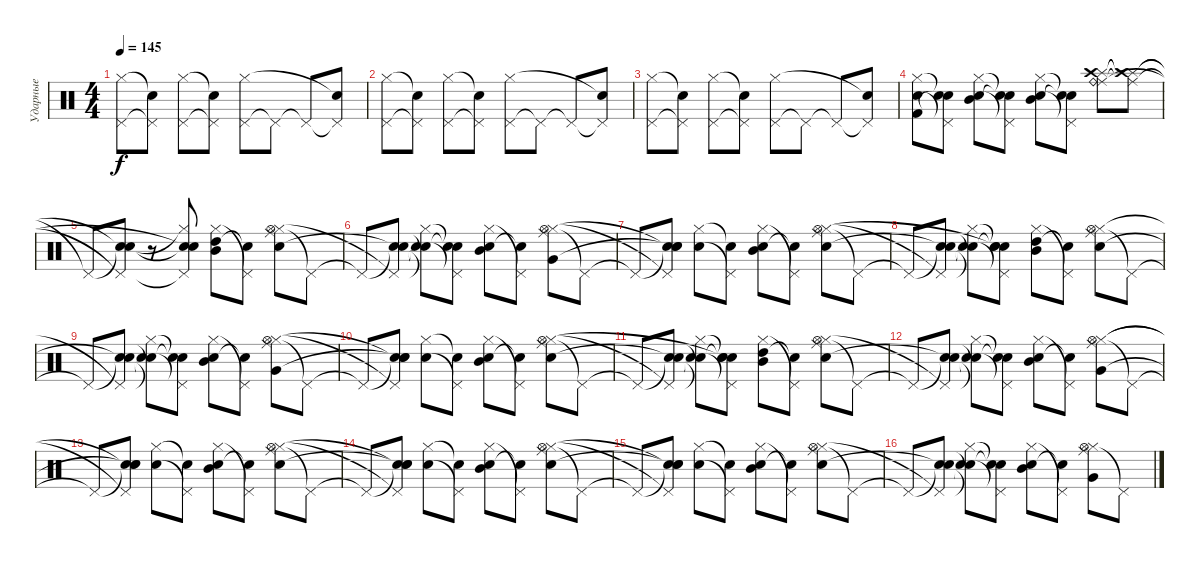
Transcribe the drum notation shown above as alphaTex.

\track ("Ударные" "Ударные") {instrument percussion}
\staff {score}
\articulation defaults
\ts (4 4)
\tempo 145
\clef neutral
\ks c
("Pedal Hi-Hat (hit)" "Hi-Hat (closed)").8{dy f} ("Pedal Hi-Hat (hit)"{t} "Snare (hit)"{t}).8 ("Pedal Hi-Hat (hit)" "Hi-Hat (closed)").8 ("Pedal Hi-Hat (hit)"{t} "Snare (hit)"{t}).8 ("Pedal Hi-Hat (hit)" "Hi-Hat (closed)").8 "Pedal Hi-Hat (hit)"{t}.8 "Pedal Hi-Hat (hit)"{t}.8 ("Pedal Hi-Hat (hit)"{t} "Snare (hit)"{t}).8 |
("Pedal Hi-Hat (hit)" "Hi-Hat (closed)").8 ("Pedal Hi-Hat (hit)"{t} "Snare (hit)"{t}).8 ("Pedal Hi-Hat (hit)" "Hi-Hat (closed)").8 ("Pedal Hi-Hat (hit)"{t} "Snare (hit)"{t}).8 ("Pedal Hi-Hat (hit)" "Hi-Hat (closed)").8 "Pedal Hi-Hat (hit)"{t}.8 "Pedal Hi-Hat (hit)"{t}.8 ("Pedal Hi-Hat (hit)"{t} "Snare (hit)"{t}).8 |
("Pedal Hi-Hat (hit)" "Hi-Hat (closed)").8 ("Pedal Hi-Hat (hit)"{t} "Snare (hit)"{t}).8 ("Pedal Hi-Hat (hit)" "Hi-Hat (closed)").8 ("Pedal Hi-Hat (hit)"{t} "Snare (hit)"{t}).8 ("Pedal Hi-Hat (hit)" "Hi-Hat (closed)").8 "Pedal Hi-Hat (hit)"{t}.8 "Pedal Hi-Hat (hit)"{t}.8 ("Pedal Hi-Hat (hit)"{t} "Snare (hit)"{t}).8 |
("Kick (hit) 2" "Snare (hit) 2" "Hi-Hat (closed)").8 ("Snare (hit)"{t} "Pedal Hi-Hat (hit)"{t} "Snare (hit)"{t}).8 ("Mid Tom (hit)" "Electric Snare (hit)" "Hi-Hat (closed)").8 ("Snare (hit)"{t} "Pedal Hi-Hat (hit)"{t} "Snare (hit)"{t}).8 ("Mid Tom (hit)" "Electric Snare (hit)" "Hi-Hat (closed)").8 ("Snare (hit)"{t} "Pedal Hi-Hat (hit)"{t} "Snare (hit)"{t}).8 ("Splash (hit)" "Ride (middle)" "Crash high (hit)" "Ride (bell)").8 ("Splash (hit)"{t} "Ride (middle)"{t} "Crash high (hit)"{t}).8 |
"Pedal Hi-Hat (hit)"{t}.8 ("Snare (hit)"{t} "Pedal Hi-Hat (hit)"{t} "Snare (hit)"{t}).8 r.8 ("Hi-Hat (closed)"{t} "Pedal Hi-Hat (hit)"{t} "Snare (hit)"{t} "Snare (hit)"{t}).8 ("Hi-Hat (closed)" "High Tom (hit)" "Mid Tom (hit)").8 ("Pedal Hi-Hat (hit)"{t} "Snare (hit)"{t}).8 ("Ride (middle)" "Hi-Hat (closed)" "Snare (hit) 2" "Hi-Hat (open)").8 "Pedal Hi-Hat (hit)"{t}.8 |
"Pedal Hi-Hat (hit)"{t}.8 ("Snare (hit)"{t} "Pedal Hi-Hat (hit)"{t} "Snare (hit)"{t}).8 ("Snare (hit)"{t} "Snare (hit) 2"{t} "Hi-Hat (closed)"{t}).8 ("Pedal Hi-Hat (hit)"{t} "Snare (hit)"{t} "Snare (hit)"{t}).8 ("Hi-Hat (closed)" "Snare (hit) 2" "Mid Tom (hit)").8 ("Pedal Hi-Hat (hit)"{t} "Snare (hit)"{t}).8 ("Ride (middle)" "Hi-Hat (closed)" "Very Low Tom (hit)" "Hi-Hat (open)").8 "Pedal Hi-Hat (hit)"{t}.8 |
"Pedal Hi-Hat (hit)"{t}.8 ("Snare (hit)"{t} "Pedal Hi-Hat (hit)"{t} "Snare (hit)"{t} "Snare (hit)"{t}).8 ("Snare (hit) 2" "Hi-Hat (closed)").8 ("Pedal Hi-Hat (hit)"{t} "Snare (hit)"{t}).8 ("Hi-Hat (closed)" "Snare (hit) 2" "Mid Tom (hit)").8 ("Pedal Hi-Hat (hit)"{t} "Snare (hit)"{t}).8 ("Ride (middle)" "Hi-Hat (closed)" "Snare (hit) 2" "Hi-Hat (open)").8 "Pedal Hi-Hat (hit)"{t}.8 |
"Pedal Hi-Hat (hit)"{t}.8 ("Snare (hit)"{t} "Pedal Hi-Hat (hit)"{t} "Snare (hit)"{t}).8 ("Snare (hit)"{t} "Snare (hit) 2"{t} "Hi-Hat (closed)"{t}).8 ("Snare (hit)"{t} "Pedal Hi-Hat (hit)"{t} "Snare (hit)"{t} "Snare (hit)"{t}).8 ("Hi-Hat (closed)" "High Tom (hit)" "Mid Tom (hit)").8 ("Pedal Hi-Hat (hit)"{t} "Snare (hit)"{t}).8 ("Ride (middle)" "Hi-Hat (closed)" "Snare (hit) 2" "Hi-Hat (open)").8 "Pedal Hi-Hat (hit)"{t}.8 |
"Pedal Hi-Hat (hit)"{t}.8 ("Snare (hit)"{t} "Pedal Hi-Hat (hit)"{t} "Snare (hit)"{t}).8 ("Snare (hit)"{t} "Snare (hit) 2"{t} "Hi-Hat (closed)"{t}).8 ("Pedal Hi-Hat (hit)"{t} "Snare (hit)"{t} "Snare (hit)"{t}).8 ("Hi-Hat (closed)" "Snare (hit) 2" "Mid Tom (hit)").8 ("Pedal Hi-Hat (hit)"{t} "Snare (hit)"{t}).8 ("Ride (middle)" "Hi-Hat (closed)" "Very Low Tom (hit)" "Hi-Hat (open)").8 "Pedal Hi-Hat (hit)"{t}.8 |
"Pedal Hi-Hat (hit)"{t}.8 ("Snare (hit)"{t} "Pedal Hi-Hat (hit)"{t} "Snare (hit)"{t} "Snare (hit)"{t}).8 ("Snare (hit) 2" "Hi-Hat (closed)").8 ("Pedal Hi-Hat (hit)"{t} "Snare (hit)"{t}).8 ("Hi-Hat (closed)" "Snare (hit) 2" "Mid Tom (hit)").8 ("Pedal Hi-Hat (hit)"{t} "Snare (hit)"{t}).8 ("Ride (middle)" "Hi-Hat (closed)" "Snare (hit) 2" "Hi-Hat (open)").8 "Pedal Hi-Hat (hit)"{t}.8 |
"Pedal Hi-Hat (hit)"{t}.8 ("Snare (hit)"{t} "Pedal Hi-Hat (hit)"{t} "Snare (hit)"{t}).8 ("Snare (hit)"{t} "Snare (hit) 2"{t} "Hi-Hat (closed)"{t}).8 ("Snare (hit)"{t} "Pedal Hi-Hat (hit)"{t} "Snare (hit)"{t} "Snare (hit)"{t}).8 ("Hi-Hat (closed)" "High Tom (hit)" "Mid Tom (hit)").8 ("Pedal Hi-Hat (hit)"{t} "Snare (hit)"{t}).8 ("Ride (middle)" "Hi-Hat (closed)" "Snare (hit) 2" "Hi-Hat (open)").8 "Pedal Hi-Hat (hit)"{t}.8 |
"Pedal Hi-Hat (hit)"{t}.8 ("Snare (hit)"{t} "Pedal Hi-Hat (hit)"{t} "Snare (hit)"{t}).8 ("Snare (hit)"{t} "Snare (hit) 2"{t} "Hi-Hat (closed)"{t}).8 ("Pedal Hi-Hat (hit)"{t} "Snare (hit)"{t} "Snare (hit)"{t}).8 ("Hi-Hat (closed)" "Snare (hit) 2" "Mid Tom (hit)").8 ("Pedal Hi-Hat (hit)"{t} "Snare (hit)"{t}).8 ("Ride (middle)" "Hi-Hat (closed)" "Very Low Tom (hit)" "Hi-Hat (open)").8 "Pedal Hi-Hat (hit)"{t}.8 |
"Pedal Hi-Hat (hit)"{t}.8 ("Snare (hit)"{t} "Pedal Hi-Hat (hit)"{t} "Snare (hit)"{t} "Snare (hit)"{t}).8 ("Snare (hit) 2" "Hi-Hat (closed)").8 ("Pedal Hi-Hat (hit)"{t} "Snare (hit)"{t}).8 ("Hi-Hat (closed)" "Snare (hit) 2" "Mid Tom (hit)").8 ("Pedal Hi-Hat (hit)"{t} "Snare (hit)"{t}).8 ("Ride (middle)" "Hi-Hat (closed)" "Snare (hit) 2" "Hi-Hat (open)").8 "Pedal Hi-Hat (hit)"{t}.8 |
"Pedal Hi-Hat (hit)"{t}.8 ("Snare (hit)"{t} "Pedal Hi-Hat (hit)"{t} "Snare (hit)"{t} "Snare (hit)"{t}).8 ("Snare (hit) 2" "Hi-Hat (closed)").8 ("Pedal Hi-Hat (hit)"{t} "Snare (hit)"{t}).8 ("Hi-Hat (closed)" "Snare (hit) 2" "Mid Tom (hit)").8 ("Pedal Hi-Hat (hit)"{t} "Snare (hit)"{t}).8 ("Ride (middle)" "Hi-Hat (closed)" "Snare (hit) 2" "Hi-Hat (open)").8 "Pedal Hi-Hat (hit)"{t}.8 |
"Pedal Hi-Hat (hit)"{t}.8 ("Snare (hit)"{t} "Pedal Hi-Hat (hit)"{t} "Snare (hit)"{t} "Snare (hit)"{t}).8 ("Snare (hit) 2" "Hi-Hat (closed)").8 ("Pedal Hi-Hat (hit)"{t} "Snare (hit)"{t}).8 ("Hi-Hat (closed)" "Snare (hit) 2" "Mid Tom (hit)").8 ("Pedal Hi-Hat (hit)"{t} "Snare (hit)"{t}).8 ("Ride (middle)" "Hi-Hat (closed)" "Snare (hit) 2" "Hi-Hat (open)").8 "Pedal Hi-Hat (hit)"{t}.8 |
"Pedal Hi-Hat (hit)"{t}.8 ("Snare (hit)"{t} "Pedal Hi-Hat (hit)"{t} "Snare (hit)"{t}).8 ("Snare (hit)"{t} "Snare (hit) 2"{t} "Hi-Hat (closed)"{t}).8 ("Pedal Hi-Hat (hit)"{t} "Snare (hit)"{t} "Snare (hit)"{t}).8 ("Hi-Hat (closed)" "Snare (hit) 2" "Mid Tom (hit)").8 ("Pedal Hi-Hat (hit)"{t} "Snare (hit)"{t}).8 ("Ride (middle)" "Hi-Hat (closed)" "Very Low Tom (hit)" "Hi-Hat (open)").8 "Pedal Hi-Hat (hit)"{t}.8
